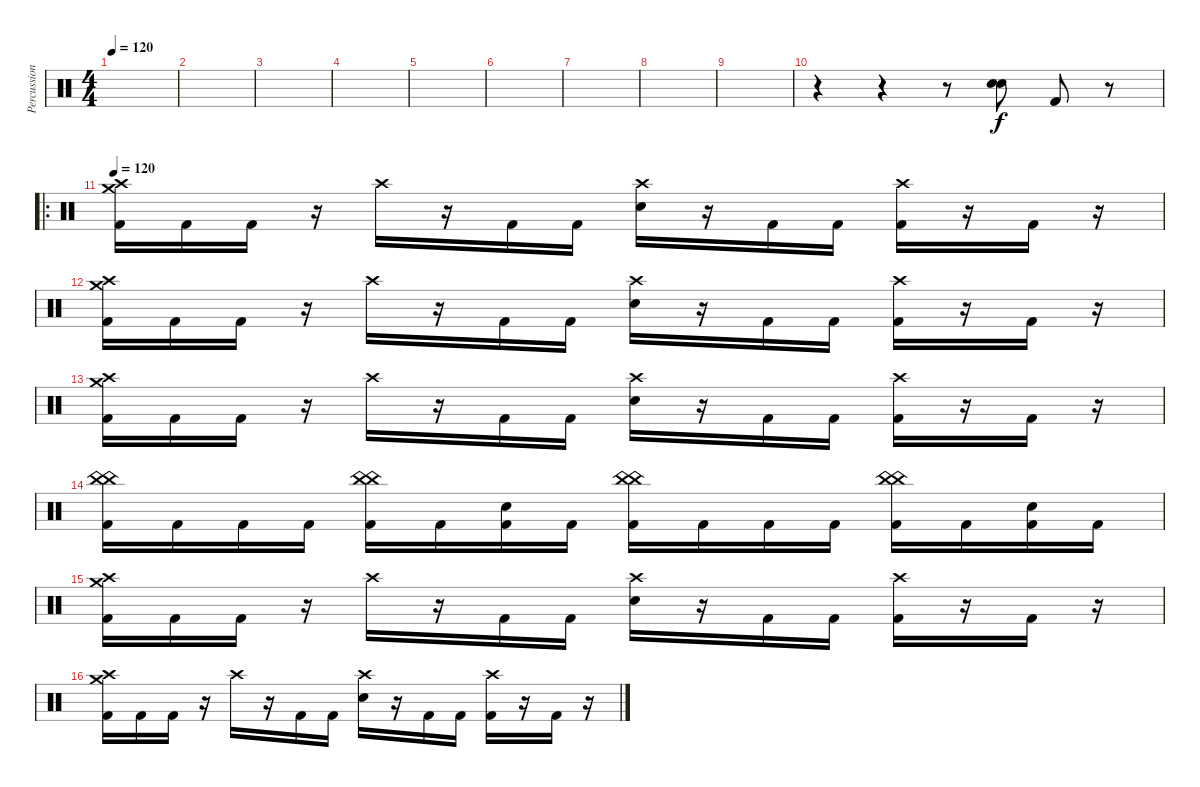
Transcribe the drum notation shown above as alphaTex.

\track ("Percussion" "Percussion") {instrument percussion bank 177}
\staff
\articulation defaults
\ts (4 4)
\tempo 120
\clef neutral
\ks c
|
|
|
|
|
|
|
|
|
r.4 r.4 r.8 ("Electric Snare (hit)" "Electric Snare (hit)").8{bd 480} "Kick (hit) 2".8 r.8 |
\ro
\tempo 120
("Crash medium (hit)" "Crash high (hit)" "Kick (hit) 2").16 "Kick (hit) 2".16 "Kick (hit) 2".16 r.16 "Crash high (hit)".16 r.16 "Kick (hit) 2".16 "Kick (hit) 2".16 ("Crash high (hit)" "Electric Snare (hit)").16 r.16 "Kick (hit) 2".16 "Kick (hit) 2".16 ("Crash high (hit)" "Kick (hit) 2").16 r.16 "Kick (hit) 2".16 r.16 |
("Crash medium (hit)" "Crash high (hit)" "Kick (hit) 2").16 "Kick (hit) 2".16 "Kick (hit) 2".16 r.16 "Crash high (hit)".16 r.16 "Kick (hit) 2".16 "Kick (hit) 2".16 ("Crash high (hit)" "Electric Snare (hit)").16 r.16 "Kick (hit) 2".16 "Kick (hit) 2".16 ("Crash high (hit)" "Kick (hit) 2").16 r.16 "Kick (hit) 2".16 r.16 |
("Crash medium (hit)" "Crash high (hit)" "Kick (hit) 2").16 "Kick (hit) 2".16 "Kick (hit) 2".16 r.16 "Crash high (hit)".16 r.16 "Kick (hit) 2".16 "Kick (hit) 2".16 ("Crash high (hit)" "Electric Snare (hit)").16 r.16 "Kick (hit) 2".16 "Kick (hit) 2".16 ("Crash high (hit)" "Kick (hit) 2").16 r.16 "Kick (hit) 2".16 r.16 |
("China (hit)" "China (hit)" "Kick (hit) 2").16 "Kick (hit) 2".16 "Kick (hit) 2".16 "Kick (hit) 2".16 ("China (hit)" "China (hit)" "Kick (hit) 2").16 "Kick (hit) 2".16 ("Electric Snare (hit)" "Kick (hit) 2").16 "Kick (hit) 2".16 ("China (hit)" "China (hit)" "Kick (hit) 2").16 "Kick (hit) 2".16 "Kick (hit) 2".16 "Kick (hit) 2".16 ("China (hit)" "China (hit)" "Kick (hit) 2").16 "Kick (hit) 2".16 ("Electric Snare (hit)" "Kick (hit) 2").16 "Kick (hit) 2".16 |
("Crash medium (hit)" "Crash high (hit)" "Kick (hit) 2").16 "Kick (hit) 2".16 "Kick (hit) 2".16 r.16 "Crash high (hit)".16 r.16 "Kick (hit) 2".16 "Kick (hit) 2".16 ("Crash high (hit)" "Electric Snare (hit)").16 r.16 "Kick (hit) 2".16 "Kick (hit) 2".16 ("Crash high (hit)" "Kick (hit) 2").16 r.16 "Kick (hit) 2".16 r.16 |
("Crash medium (hit)" "Crash high (hit)" "Kick (hit) 2").16 "Kick (hit) 2".16 "Kick (hit) 2".16 r.16 "Crash high (hit)".16 r.16 "Kick (hit) 2".16 "Kick (hit) 2".16 ("Crash high (hit)" "Electric Snare (hit)").16 r.16 "Kick (hit) 2".16 "Kick (hit) 2".16 ("Crash high (hit)" "Kick (hit) 2").16 r.16 "Kick (hit) 2".16 r.16
